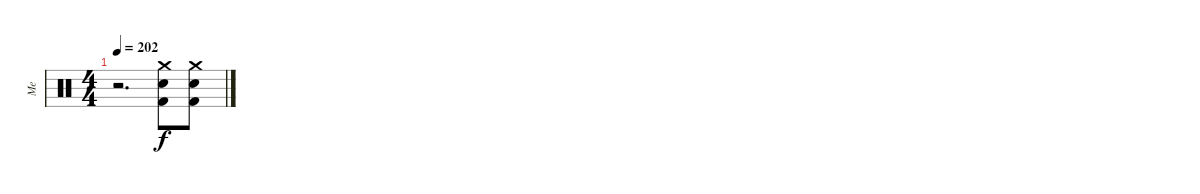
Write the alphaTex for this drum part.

\track ("Me" "Me") {instrument percussion}
\staff {score}
\articulation defaults
\ts (4 4)
\tempo 202
\clef neutral
\ks c
r.2{d dy f} ("Crash medium (hit)" "Electric Snare (hit)" "Kick (hit) 2").8 ("Crash medium (hit)" "Electric Snare (hit)" "Kick (hit) 2").8
